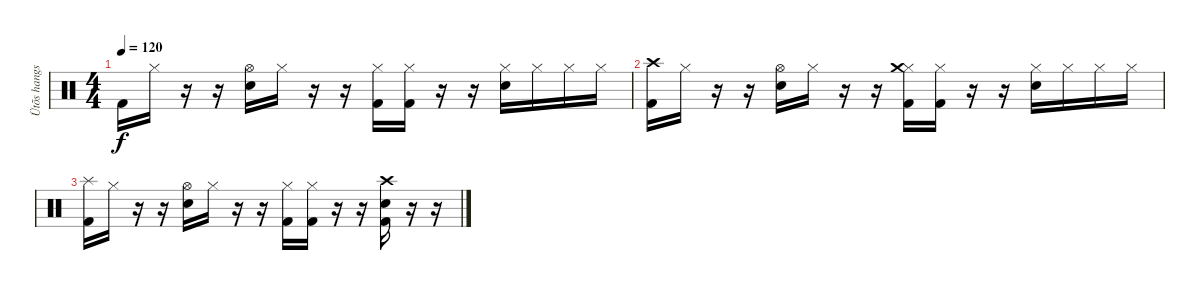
\track ("Ütõs hangszer" "Ütõs hangs") {instrument percussion}
\staff {score}
\articulation defaults
\ts (4 4)
\tempo 120
\clef neutral
\ks c "Kick (hit) 2".16{dy f} "Hi-Hat (closed)".16
r.16 r.16 ("Snare (hit) 2" "Hi-Hat (open)").16 "Hi-Hat (closed)".16 r.16 r.16 ("Kick (hit) 2" "Hi-Hat (closed)").16 ("Kick (hit) 2" "Hi-Hat (closed)").16 r.16 r.16 ("Snare (hit) 2" "Hi-Hat (closed)").16 "Hi-Hat (closed)".16 "Hi-Hat (closed)".16 "Hi-Hat (closed)".16 |
("Kick (hit) 2" "Crash high (hit)").16 "Hi-Hat (closed)".16 r.16 r.16 ("Snare (hit) 2" "Hi-Hat (open)").16 "Hi-Hat (closed)".16 r.16 r.16 ("Kick (hit) 2" "Hi-Hat (closed)" "Crash medium (hit)").16 ("Kick (hit) 2" "Hi-Hat (closed)").16 r.16 r.16 ("Snare (hit) 2" "Hi-Hat (closed)").16 "Hi-Hat (closed)".16 "Hi-Hat (closed)".16 "Hi-Hat (closed)".16 |
("Kick (hit) 2" "Splash (hit)").16 "Hi-Hat (closed)".16 r.16 r.16 ("Snare (hit) 2" "Hi-Hat (open)").16 "Hi-Hat (closed)".16 r.16 r.16 ("Kick (hit) 2" "Hi-Hat (closed)").16 ("Kick (hit) 2" "Hi-Hat (closed)").16 r.16 r.16 ("Snare (hit) 2" "Crash high (hit)" "Kick (hit) 2").16 r.16 r.16
